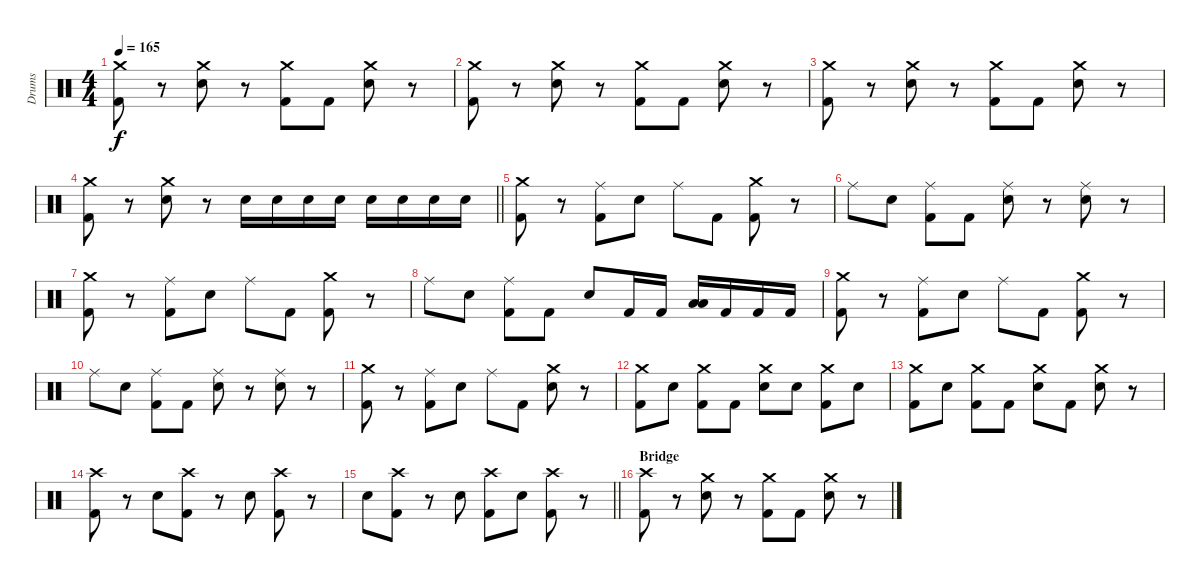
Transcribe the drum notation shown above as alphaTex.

\track ("Drums" "Drums") {instrument percussion}
\staff {score}
\articulation defaults
\ts (4 4)
\tempo 165
\clef neutral
\ks c
("Crash medium (hit)" "Kick (hit) 2").8{dy f} r.8 ("Crash medium (hit)" "Electric Snare (hit)").8 r.8 ("Crash medium (hit)" "Kick (hit) 2").8 "Kick (hit) 2".8 ("Crash medium (hit)" "Electric Snare (hit)").8 r.8 |
("Crash medium (hit)" "Kick (hit) 2").8 r.8 ("Crash medium (hit)" "Electric Snare (hit)").8 r.8 ("Crash medium (hit)" "Kick (hit) 2").8 "Kick (hit) 2".8 ("Crash medium (hit)" "Electric Snare (hit)").8 r.8 |
("Crash medium (hit)" "Kick (hit) 2").8 r.8 ("Crash medium (hit)" "Electric Snare (hit)").8 r.8 ("Crash medium (hit)" "Kick (hit) 2").8 "Kick (hit) 2".8 ("Crash medium (hit)" "Electric Snare (hit)").8 r.8 |
\barLineRight lightlight
("Crash medium (hit)" "Kick (hit) 2").8 r.8 ("Crash medium (hit)" "Electric Snare (hit)").8 r.8 "Electric Snare (hit)".16 "Electric Snare (hit)".16 "Electric Snare (hit)".16 "Electric Snare (hit)".16 "Electric Snare (hit)".16 "Electric Snare (hit)".16 "Electric Snare (hit)".16 "Electric Snare (hit)".16 |
("Crash medium (hit)" "Kick (hit) 2").8 r.8 ("Ride (middle)" "Kick (hit) 2").8 "Electric Snare (hit)".8 "Ride (middle)".8 "Kick (hit) 2".8 ("Crash medium (hit)" "Kick (hit) 2").8 r.8 |
"Ride (middle)".8 "Electric Snare (hit)".8 ("Ride (middle)" "Kick (hit) 2").8 "Kick (hit) 2".8 ("Ride (middle)" "Electric Snare (hit)").8 r.8 ("Ride (middle)" "Electric Snare (hit)").8 r.8 |
("Crash medium (hit)" "Kick (hit) 2").8 r.8 ("Ride (middle)" "Kick (hit) 2").8 "Electric Snare (hit)".8 "Ride (middle)".8 "Kick (hit) 2".8 ("Crash medium (hit)" "Kick (hit) 2").8 r.8 |
"Ride (middle)".8 "Electric Snare (hit)".8 ("Ride (middle)" "Kick (hit) 2").8 "Kick (hit) 2".8 "Electric Snare (hit)".8 "Kick (hit) 2".16 "Kick (hit) 2".16 ("Low Tom (hit)" "Low Tom (hit)").16 "Kick (hit) 2".16 "Kick (hit) 2".16 "Kick (hit) 2".16 |
("Crash medium (hit)" "Kick (hit) 2").8 r.8 ("Ride (middle)" "Kick (hit) 2").8 "Electric Snare (hit)".8 "Ride (middle)".8 "Kick (hit) 2".8 ("Crash medium (hit)" "Kick (hit) 2").8 r.8 |
"Ride (middle)".8 "Electric Snare (hit)".8 ("Ride (middle)" "Kick (hit) 2").8 "Kick (hit) 2".8 ("Ride (middle)" "Electric Snare (hit)").8 r.8 ("Ride (middle)" "Electric Snare (hit)").8 r.8 |
("Crash medium (hit)" "Kick (hit) 2").8 r.8 ("Ride (middle)" "Kick (hit) 2").8 "Electric Snare (hit)".8 "Ride (middle)".8 "Kick (hit) 2".8 ("Crash medium (hit)" "Electric Snare (hit)").8 r.8 |
("Crash medium (hit)" "Kick (hit) 2").8 "Electric Snare (hit)".8 ("Crash medium (hit)" "Kick (hit) 2").8 "Kick (hit) 2".8 ("Crash medium (hit)" "Electric Snare (hit)").8 "Electric Snare (hit)".8 ("Crash medium (hit)" "Kick (hit) 2").8 "Electric Snare (hit)".8 |
("Crash medium (hit)" "Kick (hit) 2").8 "Electric Snare (hit)".8 ("Crash medium (hit)" "Kick (hit) 2").8 "Kick (hit) 2".8 ("Crash medium (hit)" "Electric Snare (hit)").8 "Kick (hit) 2".8 ("Crash medium (hit)" "Electric Snare (hit)").8 r.8 |
("Crash high (hit)" "Kick (hit) 2").8 r.8 "Electric Snare (hit)".8 ("Crash high (hit)" "Kick (hit) 2").8 r.8 "Electric Snare (hit)".8 ("Crash high (hit)" "Kick (hit) 2").8 r.8 |
\barLineRight lightlight "Electric Snare (hit)".8
("Crash high (hit)" "Kick (hit) 2").8 r.8 "Electric Snare (hit)".8 ("Crash high (hit)" "Kick (hit) 2").8 "Electric Snare (hit)".8 ("Crash high (hit)" "Kick (hit) 2").8 r.8 |
\section ("" "Bridge")
("Crash high (hit)" "Kick (hit) 2").8 r.8 ("Crash medium (hit)" "Electric Snare (hit)").8 r.8 ("Crash medium (hit)" "Kick (hit) 2").8 "Kick (hit) 2".8 ("Crash medium (hit)" "Electric Snare (hit)").8 r.8
